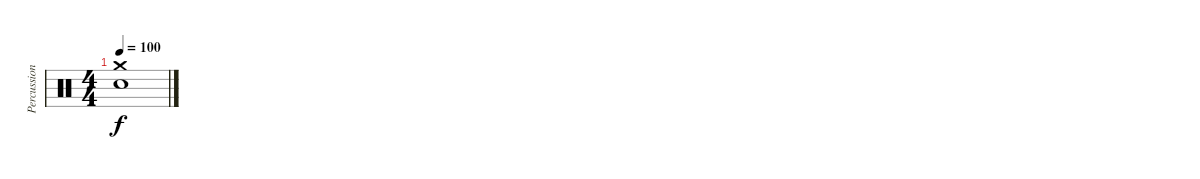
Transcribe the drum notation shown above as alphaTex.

\track ("Percussions" "Percussion") {instrument percussion}
\staff {score}
\articulation defaults
\ts (4 4)
\tempo 100
\clef neutral
\ks c
("Crash medium (hit)" "Snare (hit) 2").1{dy f}
